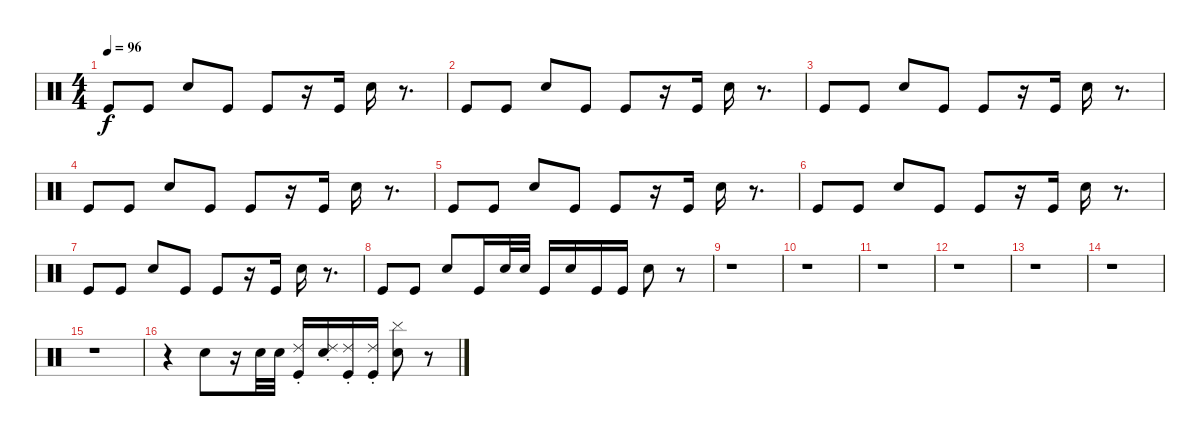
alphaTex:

\track "" {instrument percussion}
\staff {score}
\articulation defaults
\ts (4 4)
\tempo 96
\clef neutral
\ks c "Kick (hit)".8{dy f} "Kick (hit)".8 "Snare (hit) 2".8 "Kick (hit)".8 "Kick (hit)".8
r.16 "Kick (hit)".16 "Snare (hit) 2".16 r.8{d} |
"Kick (hit)".8 "Kick (hit)".8 "Snare (hit) 2".8 "Kick (hit)".8 "Kick (hit)".8 r.16 "Kick (hit)".16 "Snare (hit) 2".16 r.8{d} |
"Kick (hit)".8 "Kick (hit)".8 "Snare (hit) 2".8 "Kick (hit)".8 "Kick (hit)".8 r.16 "Kick (hit)".16 "Snare (hit) 2".16 r.8{d} |
"Kick (hit)".8 "Kick (hit)".8 "Snare (hit) 2".8 "Kick (hit)".8 "Kick (hit)".8 r.16 "Kick (hit)".16 "Snare (hit) 2".16 r.8{d} |
"Kick (hit)".8 "Kick (hit)".8 "Snare (hit) 2".8 "Kick (hit)".8 "Kick (hit)".8 r.16 "Kick (hit)".16 "Snare (hit) 2".16 r.8{d} |
"Kick (hit)".8 "Kick (hit)".8 "Snare (hit) 2".8 "Kick (hit)".8 "Kick (hit)".8 r.16 "Kick (hit)".16 "Snare (hit) 2".16 r.8{d} |
"Kick (hit)".8 "Kick (hit)".8 "Snare (hit) 2".8 "Kick (hit)".8 "Kick (hit)".8 r.16 "Kick (hit)".16 "Snare (hit) 2".16 r.8{d} |
"Kick (hit)".8 "Kick (hit)".8 "Snare (hit) 2".8 "Kick (hit)".16 "Snare (hit) 2".32 "Snare (hit) 2".32 "Kick (hit)".16 "Snare (hit) 2".16 "Kick (hit)".16 "Kick (hit)".16 "Snare (hit) 2".8 r.8 |
r.1 |
r.1 |
r.1 |
r.1 |
r.1 |
r.1 |
r.1 |
r.4 "Snare (hit) 2".8 r.16 "Snare (hit) 2".32 "Snare (hit) 2".32 ("Ride (choke) 2" "Kick (hit)").16 ("Ride (choke) 2" "Snare (hit) 2").16 ("Ride (choke) 2" "Kick (hit)").16 ("Ride (choke) 2" "Kick (hit)").16 ("Cymbal (hit)" "Snare (hit) 2").8 r.8
